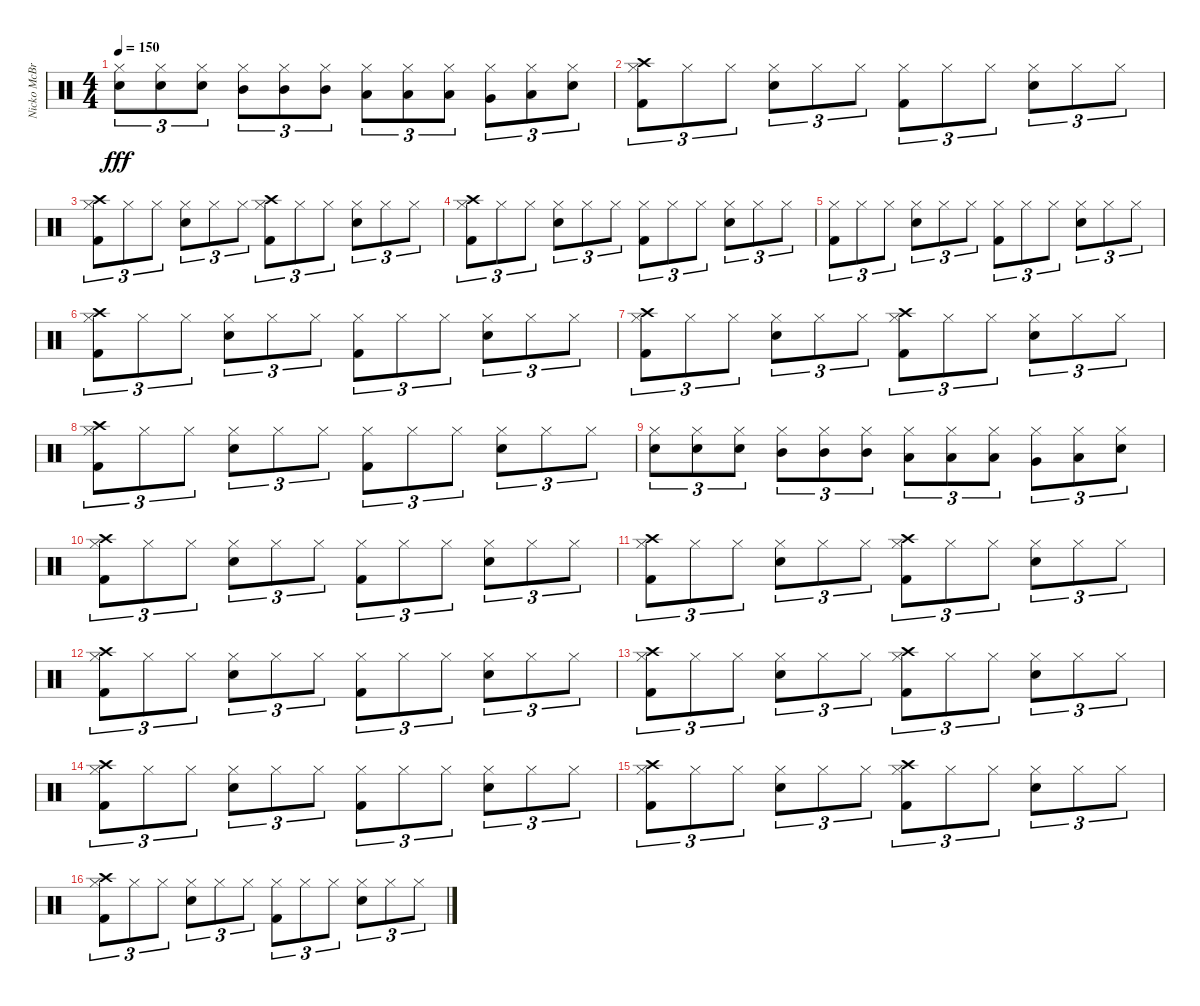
\track ("Nicko McBrain" "Nicko McBr") {instrument percussion}
\staff {score}
\articulation defaults
\ts (4 4)
\tempo 150
\clef neutral
\ks c
("Snare (hit) 2" "Hi-Hat (closed)").8{tu (3 2) dy fff} ("Snare (hit) 2" "Hi-Hat (closed)").8{tu (3 2)} ("Snare (hit) 2" "Hi-Hat (closed)").8{tu (3 2)} ("Mid Tom (hit)" "Hi-Hat (closed)").8{tu (3 2)} ("Mid Tom (hit)" "Hi-Hat (closed)").8{tu (3 2)} ("Mid Tom (hit)" "Hi-Hat (closed)").8{tu (3 2)} ("Low Tom (hit)" "Hi-Hat (closed)").8{tu (3 2)} ("Low Tom (hit)" "Hi-Hat (closed)").8{tu (3 2)} ("Low Tom (hit)" "Hi-Hat (closed)").8{tu (3 2)} ("Very Low Tom (hit)" "Hi-Hat (closed)").8{tu (3 2)} ("Low Floor Tom (hit)" "Hi-Hat (closed)").8{tu (3 2)} ("Electric Snare (hit)" "Hi-Hat (closed)").8{tu (3 2)} |
("Hi-Hat (closed)" "Kick (hit) 2" "Crash high (hit)").8{tu (3 2)} "Hi-Hat (closed)".8{tu (3 2)} "Hi-Hat (closed)".8{tu (3 2)} ("Hi-Hat (closed)" "Snare (hit) 2").8{tu (3 2)} "Hi-Hat (closed)".8{tu (3 2)} "Hi-Hat (closed)".8{tu (3 2)} ("Hi-Hat (closed)" "Kick (hit) 2").8{tu (3 2)} "Hi-Hat (closed)".8{tu (3 2)} "Hi-Hat (closed)".8{tu (3 2)} ("Hi-Hat (closed)" "Snare (hit) 2").8{tu (3 2)} "Hi-Hat (closed)".8{tu (3 2)} "Hi-Hat (closed)".8{tu (3 2)} |
("Hi-Hat (closed)" "Kick (hit) 2" "Crash high (hit)").8{tu (3 2)} "Hi-Hat (closed)".8{tu (3 2)} "Hi-Hat (closed)".8{tu (3 2)} ("Hi-Hat (closed)" "Snare (hit) 2").8{tu (3 2)} "Hi-Hat (closed)".8{tu (3 2)} "Hi-Hat (closed)".8{tu (3 2)} ("Hi-Hat (closed)" "Kick (hit) 2" "Crash high (hit)").8{tu (3 2)} "Hi-Hat (closed)".8{tu (3 2)} "Hi-Hat (closed)".8{tu (3 2)} ("Hi-Hat (closed)" "Snare (hit) 2").8{tu (3 2)} "Hi-Hat (closed)".8{tu (3 2)} "Hi-Hat (closed)".8{tu (3 2)} |
("Hi-Hat (closed)" "Kick (hit) 2" "Crash high (hit)").8{tu (3 2)} "Hi-Hat (closed)".8{tu (3 2)} "Hi-Hat (closed)".8{tu (3 2)} ("Hi-Hat (closed)" "Snare (hit) 2").8{tu (3 2)} "Hi-Hat (closed)".8{tu (3 2)} "Hi-Hat (closed)".8{tu (3 2)} ("Hi-Hat (closed)" "Kick (hit) 2").8{tu (3 2)} "Hi-Hat (closed)".8{tu (3 2)} "Hi-Hat (closed)".8{tu (3 2)} ("Hi-Hat (closed)" "Snare (hit) 2").8{tu (3 2)} "Hi-Hat (closed)".8{tu (3 2)} "Hi-Hat (closed)".8{tu (3 2)} |
("Hi-Hat (closed)" "Kick (hit) 2").8{tu (3 2)} "Hi-Hat (closed)".8{tu (3 2)} "Hi-Hat (closed)".8{tu (3 2)} ("Hi-Hat (closed)" "Snare (hit) 2").8{tu (3 2)} "Hi-Hat (closed)".8{tu (3 2)} "Hi-Hat (closed)".8{tu (3 2)} ("Hi-Hat (closed)" "Kick (hit) 2").8{tu (3 2)} "Hi-Hat (closed)".8{tu (3 2)} "Hi-Hat (closed)".8{tu (3 2)} ("Hi-Hat (closed)" "Snare (hit) 2").8{tu (3 2)} "Hi-Hat (closed)".8{tu (3 2)} "Hi-Hat (closed)".8{tu (3 2)} |
("Hi-Hat (closed)" "Kick (hit) 2" "Crash high (hit)").8{tu (3 2)} "Hi-Hat (closed)".8{tu (3 2)} "Hi-Hat (closed)".8{tu (3 2)} ("Hi-Hat (closed)" "Snare (hit) 2").8{tu (3 2)} "Hi-Hat (closed)".8{tu (3 2)} "Hi-Hat (closed)".8{tu (3 2)} ("Hi-Hat (closed)" "Kick (hit) 2").8{tu (3 2)} "Hi-Hat (closed)".8{tu (3 2)} "Hi-Hat (closed)".8{tu (3 2)} ("Hi-Hat (closed)" "Snare (hit) 2").8{tu (3 2)} "Hi-Hat (closed)".8{tu (3 2)} "Hi-Hat (closed)".8{tu (3 2)} |
("Hi-Hat (closed)" "Kick (hit) 2" "Crash high (hit)").8{tu (3 2)} "Hi-Hat (closed)".8{tu (3 2)} "Hi-Hat (closed)".8{tu (3 2)} ("Hi-Hat (closed)" "Snare (hit) 2").8{tu (3 2)} "Hi-Hat (closed)".8{tu (3 2)} "Hi-Hat (closed)".8{tu (3 2)} ("Hi-Hat (closed)" "Kick (hit) 2" "Crash high (hit)").8{tu (3 2)} "Hi-Hat (closed)".8{tu (3 2)} "Hi-Hat (closed)".8{tu (3 2)} ("Hi-Hat (closed)" "Snare (hit) 2").8{tu (3 2)} "Hi-Hat (closed)".8{tu (3 2)} "Hi-Hat (closed)".8{tu (3 2)} |
("Hi-Hat (closed)" "Kick (hit) 2" "Crash high (hit)").8{tu (3 2)} "Hi-Hat (closed)".8{tu (3 2)} "Hi-Hat (closed)".8{tu (3 2)} ("Hi-Hat (closed)" "Snare (hit) 2").8{tu (3 2)} "Hi-Hat (closed)".8{tu (3 2)} "Hi-Hat (closed)".8{tu (3 2)} ("Hi-Hat (closed)" "Kick (hit) 2").8{tu (3 2)} "Hi-Hat (closed)".8{tu (3 2)} "Hi-Hat (closed)".8{tu (3 2)} ("Hi-Hat (closed)" "Snare (hit) 2").8{tu (3 2)} "Hi-Hat (closed)".8{tu (3 2)} "Hi-Hat (closed)".8{tu (3 2)} |
("Snare (hit) 2" "Hi-Hat (closed)").8{tu (3 2)} ("Snare (hit) 2" "Hi-Hat (closed)").8{tu (3 2)} ("Snare (hit) 2" "Hi-Hat (closed)").8{tu (3 2)} ("Mid Tom (hit)" "Hi-Hat (closed)").8{tu (3 2)} ("Mid Tom (hit)" "Hi-Hat (closed)").8{tu (3 2)} ("Mid Tom (hit)" "Hi-Hat (closed)").8{tu (3 2)} ("Low Tom (hit)" "Hi-Hat (closed)").8{tu (3 2)} ("Low Tom (hit)" "Hi-Hat (closed)").8{tu (3 2)} ("Low Tom (hit)" "Hi-Hat (closed)").8{tu (3 2)} ("Very Low Tom (hit)" "Hi-Hat (closed)").8{tu (3 2)} ("Low Floor Tom (hit)" "Hi-Hat (closed)").8{tu (3 2)} ("Electric Snare (hit)" "Hi-Hat (closed)").8{tu (3 2)} |
("Hi-Hat (closed)" "Kick (hit) 2" "Crash high (hit)").8{tu (3 2)} "Hi-Hat (closed)".8{tu (3 2)} "Hi-Hat (closed)".8{tu (3 2)} ("Hi-Hat (closed)" "Snare (hit) 2").8{tu (3 2)} "Hi-Hat (closed)".8{tu (3 2)} "Hi-Hat (closed)".8{tu (3 2)} ("Hi-Hat (closed)" "Kick (hit) 2").8{tu (3 2)} "Hi-Hat (closed)".8{tu (3 2)} "Hi-Hat (closed)".8{tu (3 2)} ("Hi-Hat (closed)" "Snare (hit) 2").8{tu (3 2)} "Hi-Hat (closed)".8{tu (3 2)} "Hi-Hat (closed)".8{tu (3 2)} |
("Hi-Hat (closed)" "Kick (hit) 2" "Crash high (hit)").8{tu (3 2)} "Hi-Hat (closed)".8{tu (3 2)} "Hi-Hat (closed)".8{tu (3 2)} ("Hi-Hat (closed)" "Snare (hit) 2").8{tu (3 2)} "Hi-Hat (closed)".8{tu (3 2)} "Hi-Hat (closed)".8{tu (3 2)} ("Hi-Hat (closed)" "Kick (hit) 2" "Crash high (hit)").8{tu (3 2)} "Hi-Hat (closed)".8{tu (3 2)} "Hi-Hat (closed)".8{tu (3 2)} ("Hi-Hat (closed)" "Snare (hit) 2").8{tu (3 2)} "Hi-Hat (closed)".8{tu (3 2)} "Hi-Hat (closed)".8{tu (3 2)} |
("Hi-Hat (closed)" "Kick (hit) 2" "Crash high (hit)").8{tu (3 2)} "Hi-Hat (closed)".8{tu (3 2)} "Hi-Hat (closed)".8{tu (3 2)} ("Hi-Hat (closed)" "Snare (hit) 2").8{tu (3 2)} "Hi-Hat (closed)".8{tu (3 2)} "Hi-Hat (closed)".8{tu (3 2)} ("Hi-Hat (closed)" "Kick (hit) 2").8{tu (3 2)} "Hi-Hat (closed)".8{tu (3 2)} "Hi-Hat (closed)".8{tu (3 2)} ("Hi-Hat (closed)" "Snare (hit) 2").8{tu (3 2)} "Hi-Hat (closed)".8{tu (3 2)} "Hi-Hat (closed)".8{tu (3 2)} |
("Hi-Hat (closed)" "Kick (hit) 2" "Crash high (hit)").8{tu (3 2)} "Hi-Hat (closed)".8{tu (3 2)} "Hi-Hat (closed)".8{tu (3 2)} ("Hi-Hat (closed)" "Snare (hit) 2").8{tu (3 2)} "Hi-Hat (closed)".8{tu (3 2)} "Hi-Hat (closed)".8{tu (3 2)} ("Hi-Hat (closed)" "Kick (hit) 2" "Crash high (hit)").8{tu (3 2)} "Hi-Hat (closed)".8{tu (3 2)} "Hi-Hat (closed)".8{tu (3 2)} ("Hi-Hat (closed)" "Snare (hit) 2").8{tu (3 2)} "Hi-Hat (closed)".8{tu (3 2)} "Hi-Hat (closed)".8{tu (3 2)} |
("Hi-Hat (closed)" "Kick (hit) 2" "Crash high (hit)").8{tu (3 2)} "Hi-Hat (closed)".8{tu (3 2)} "Hi-Hat (closed)".8{tu (3 2)} ("Hi-Hat (closed)" "Snare (hit) 2").8{tu (3 2)} "Hi-Hat (closed)".8{tu (3 2)} "Hi-Hat (closed)".8{tu (3 2)} ("Hi-Hat (closed)" "Kick (hit) 2").8{tu (3 2)} "Hi-Hat (closed)".8{tu (3 2)} "Hi-Hat (closed)".8{tu (3 2)} ("Hi-Hat (closed)" "Snare (hit) 2").8{tu (3 2)} "Hi-Hat (closed)".8{tu (3 2)} "Hi-Hat (closed)".8{tu (3 2)} |
("Hi-Hat (closed)" "Kick (hit) 2" "Crash high (hit)").8{tu (3 2)} "Hi-Hat (closed)".8{tu (3 2)} "Hi-Hat (closed)".8{tu (3 2)} ("Hi-Hat (closed)" "Snare (hit) 2").8{tu (3 2)} "Hi-Hat (closed)".8{tu (3 2)} "Hi-Hat (closed)".8{tu (3 2)} ("Hi-Hat (closed)" "Kick (hit) 2" "Crash high (hit)").8{tu (3 2)} "Hi-Hat (closed)".8{tu (3 2)} "Hi-Hat (closed)".8{tu (3 2)} ("Hi-Hat (closed)" "Snare (hit) 2").8{tu (3 2)} "Hi-Hat (closed)".8{tu (3 2)} "Hi-Hat (closed)".8{tu (3 2)} |
("Hi-Hat (closed)" "Kick (hit) 2" "Crash high (hit)").8{tu (3 2)} "Hi-Hat (closed)".8{tu (3 2)} "Hi-Hat (closed)".8{tu (3 2)} ("Hi-Hat (closed)" "Snare (hit) 2").8{tu (3 2)} "Hi-Hat (closed)".8{tu (3 2)} "Hi-Hat (closed)".8{tu (3 2)} ("Hi-Hat (closed)" "Kick (hit) 2").8{tu (3 2)} "Hi-Hat (closed)".8{tu (3 2)} "Hi-Hat (closed)".8{tu (3 2)} ("Hi-Hat (closed)" "Snare (hit) 2").8{tu (3 2)} "Hi-Hat (closed)".8{tu (3 2)} "Hi-Hat (closed)".8{tu (3 2)}
